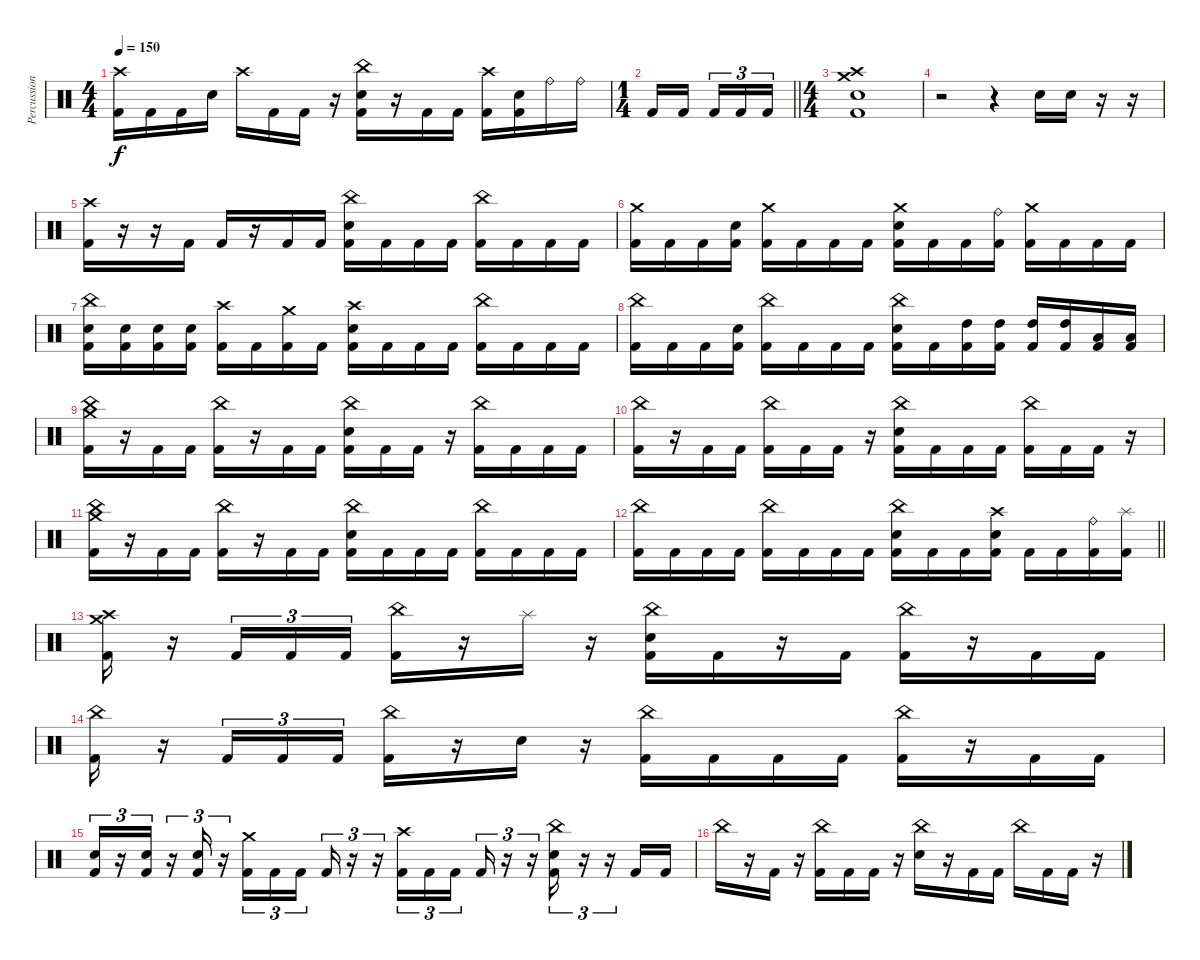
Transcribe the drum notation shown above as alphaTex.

\track ("Percussion" "Percussion") {instrument percussion}
\staff {score}
\articulation defaults
\ts (4 4)
\tempo 150
\clef neutral
\ks c
("Crash high (hit)" "Kick (hit) 2").16{dy f} "Kick (hit) 2".16 "Kick (hit) 2".16 "Electric Snare (hit)".16 "Crash high (hit)".16 "Kick (hit) 2".16 "Kick (hit) 2".16 r.16 ("China (hit)" "Electric Snare (hit)" "Kick (hit) 2").16 r.16 "Kick (hit) 2".16 "Kick (hit) 2".16 ("Crash high (hit)" "Kick (hit) 2").16 ("Electric Snare (hit)" "Kick (hit) 2").16 "Ride (bell)".16 "Ride (bell)".16 |
\ts (1 4)
\barLineRight lightlight "Kick (hit) 2".16 "Kick (hit) 2".16{beam splitsecondary} "Kick (hit) 2".16{tu (3 2)} "Kick (hit) 2".16{tu (3 2)} "Kick (hit) 2".16{tu (3 2)}
|
\ts (4 4)
("Crash high (hit)" "Crash medium (hit)" "Electric Snare (hit)" "Kick (hit) 2").1 |
r.2 r.4 "Electric Snare (hit)".16 "Electric Snare (hit)".16 r.16 r.16 |
("Crash high (hit)" "Kick (hit) 2").16 r.16 r.16 "Kick (hit) 2".16 "Kick (hit) 2".16 r.16 "Kick (hit) 2".16 "Kick (hit) 2".16 ("China (hit)" "Electric Snare (hit)" "Kick (hit) 2").16 "Kick (hit) 2".16 "Kick (hit) 2".16 "Kick (hit) 2".16 ("China (hit)" "Kick (hit) 2").16 "Kick (hit) 2".16 "Kick (hit) 2".16 "Kick (hit) 2".16 |
("Crash medium (hit)" "Kick (hit) 2").16 "Kick (hit) 2".16 "Kick (hit) 2".16 ("Electric Snare (hit)" "Kick (hit) 2").16 ("Crash medium (hit)" "Kick (hit) 2").16 "Kick (hit) 2".16 "Kick (hit) 2".16 "Kick (hit) 2".16 ("Crash medium (hit)" "Electric Snare (hit)" "Kick (hit) 2").16 "Kick (hit) 2".16 "Kick (hit) 2".16 ("Ride (bell)" "Kick (hit) 2").16 ("Crash medium (hit)" "Kick (hit) 2").16 "Kick (hit) 2".16 "Kick (hit) 2".16 "Kick (hit) 2".16 |
("China (hit)" "Electric Snare (hit)" "Kick (hit) 2").16 ("Electric Snare (hit)" "Kick (hit) 2").16 ("Electric Snare (hit)" "Kick (hit) 2").16 ("Electric Snare (hit)" "Kick (hit) 2").16 ("Crash high (hit)" "Kick (hit) 2").16 "Kick (hit) 2".16 ("Crash medium (hit)" "Kick (hit) 2").16 "Kick (hit) 2".16 ("Crash high (hit)" "Electric Snare (hit)" "Kick (hit) 2").16 "Kick (hit) 2".16 "Kick (hit) 2".16 "Kick (hit) 2".16 ("China (hit)" "Kick (hit) 2").16 "Kick (hit) 2".16 "Kick (hit) 2".16 "Kick (hit) 2".16 |
("China (hit)" "Kick (hit) 2").16 "Kick (hit) 2".16 "Kick (hit) 2".16 ("Electric Snare (hit)" "Kick (hit) 2").16 ("China (hit)" "Kick (hit) 2").16 "Kick (hit) 2".16 "Kick (hit) 2".16 "Kick (hit) 2".16 ("China (hit)" "Electric Snare (hit)" "Kick (hit) 2").16 "Kick (hit) 2".16 ("High Tom (hit)" "Kick (hit) 2").16 ("High Tom (hit)" "Kick (hit) 2").16 ("High Tom (hit)" "Kick (hit) 2").16 ("High Tom (hit)" "Kick (hit) 2").16 ("Low Tom (hit)" "Kick (hit) 2").16 ("Low Tom (hit)" "Kick (hit) 2").16 |
("China (hit)" "Crash medium (hit)" "Kick (hit) 2").16 r.16 "Kick (hit) 2".16 "Kick (hit) 2".16 ("China (hit)" "Kick (hit) 2").16 r.16 "Kick (hit) 2".16 "Kick (hit) 2".16 ("China (hit)" "Electric Snare (hit)" "Kick (hit) 2").16 "Kick (hit) 2".16 "Kick (hit) 2".16 r.16 ("China (hit)" "Kick (hit) 2").16 "Kick (hit) 2".16 "Kick (hit) 2".16 "Kick (hit) 2".16 |
("China (hit)" "Kick (hit) 2").16 r.16 "Kick (hit) 2".16 "Kick (hit) 2".16 ("China (hit)" "Kick (hit) 2").16 "Kick (hit) 2".16 "Kick (hit) 2".16 r.16 ("China (hit)" "Electric Snare (hit)" "Kick (hit) 2").16 "Kick (hit) 2".16 "Kick (hit) 2".16 "Kick (hit) 2".16 ("China (hit)" "Kick (hit) 2").16 "Kick (hit) 2".16 "Kick (hit) 2".16 r.16 |
("China (hit)" "Crash medium (hit)" "Kick (hit) 2").16 r.16 "Kick (hit) 2".16 "Kick (hit) 2".16 ("China (hit)" "Kick (hit) 2").16 r.16 "Kick (hit) 2".16 "Kick (hit) 2".16 ("China (hit)" "Electric Snare (hit)" "Kick (hit) 2").16 "Kick (hit) 2".16 "Kick (hit) 2".16 "Kick (hit) 2".16 ("China (hit)" "Kick (hit) 2").16 "Kick (hit) 2".16 "Kick (hit) 2".16 "Kick (hit) 2".16 |
\barLineRight lightlight
("China (hit)" "Kick (hit) 2").16 "Kick (hit) 2".16 "Kick (hit) 2".16 "Kick (hit) 2".16 ("China (hit)" "Kick (hit) 2").16 "Kick (hit) 2".16 "Kick (hit) 2".16 "Kick (hit) 2".16 ("China (hit)" "Electric Snare (hit)" "Kick (hit) 2").16 "Kick (hit) 2".16 "Kick (hit) 2".16 ("Crash high (hit)" "Electric Snare (hit)" "Kick (hit) 2").16 "Kick (hit) 2".16 "Kick (hit) 2".16 ("Ride (bell)" "Kick (hit) 2").16 ("Splash (hit)" "Kick (hit) 2").16 |
("Crash high (hit)" "Crash medium (hit)" "Kick (hit) 2").16 r.16 "Kick (hit) 2".16{tu (3 2)} "Kick (hit) 2".16{tu (3 2)} "Kick (hit) 2".16{tu (3 2)} ("China (hit)" "Kick (hit) 2").16 r.16 "Splash (hit)".16 r.16 ("China (hit)" "Electric Snare (hit)" "Kick (hit) 2").16 "Kick (hit) 2".16 r.16 "Kick (hit) 2".16 ("China (hit)" "Kick (hit) 2").16 r.16 "Kick (hit) 2".16 "Kick (hit) 2".16 |
("China (hit)" "Kick (hit) 2").16 r.16 "Kick (hit) 2".16{tu (3 2)} "Kick (hit) 2".16{tu (3 2)} "Kick (hit) 2".16{tu (3 2)} ("China (hit)" "Kick (hit) 2").16 r.16 "Electric Snare (hit)".16 r.16 ("China (hit)" "Kick (hit) 2").16 "Kick (hit) 2".16 "Kick (hit) 2".16 "Kick (hit) 2".16 ("China (hit)" "Kick (hit) 2").16 r.16 "Kick (hit) 2".16 "Kick (hit) 2".16 |
("Electric Snare (hit)" "Kick (hit) 2").16{tu (3 2)} r.16{tu (3 2)} ("Electric Snare (hit)" "Kick (hit) 2").16{tu (3 2)} r.16{tu (3 2)} ("Electric Snare (hit)" "Kick (hit) 2").16{tu (3 2)} r.16{tu (3 2)} ("Crash medium (hit)" "Kick (hit) 2").16{tu (3 2)} "Kick (hit) 2".16{tu (3 2)} "Kick (hit) 2".16{tu (3 2) beam splitsecondary} "Kick (hit) 2".16{tu (3 2)} r.16{tu (3 2)} r.16{tu (3 2)} ("Crash high (hit)" "Kick (hit) 2").16{tu (3 2)} "Kick (hit) 2".16{tu (3 2)} "Kick (hit) 2".16{tu (3 2) beam splitsecondary} "Kick (hit) 2".16{tu (3 2)} r.16{tu (3 2)} r.16{tu (3 2)} ("China (hit)" "Electric Snare (hit)" "Kick (hit) 2").16{tu (3 2)} r.16{tu (3 2)} r.16{tu (3 2)} "Kick (hit) 2".16 "Kick (hit) 2".16 |
"China (hit)".16 r.16 "Kick (hit) 2".16 r.16 ("China (hit)" "Kick (hit) 2").16 "Kick (hit) 2".16 "Kick (hit) 2".16 r.16 ("China (hit)" "Electric Snare (hit)").16 r.16 "Kick (hit) 2".16 "Kick (hit) 2".16 "China (hit)".16 "Kick (hit) 2".16 "Kick (hit) 2".16 r.16
